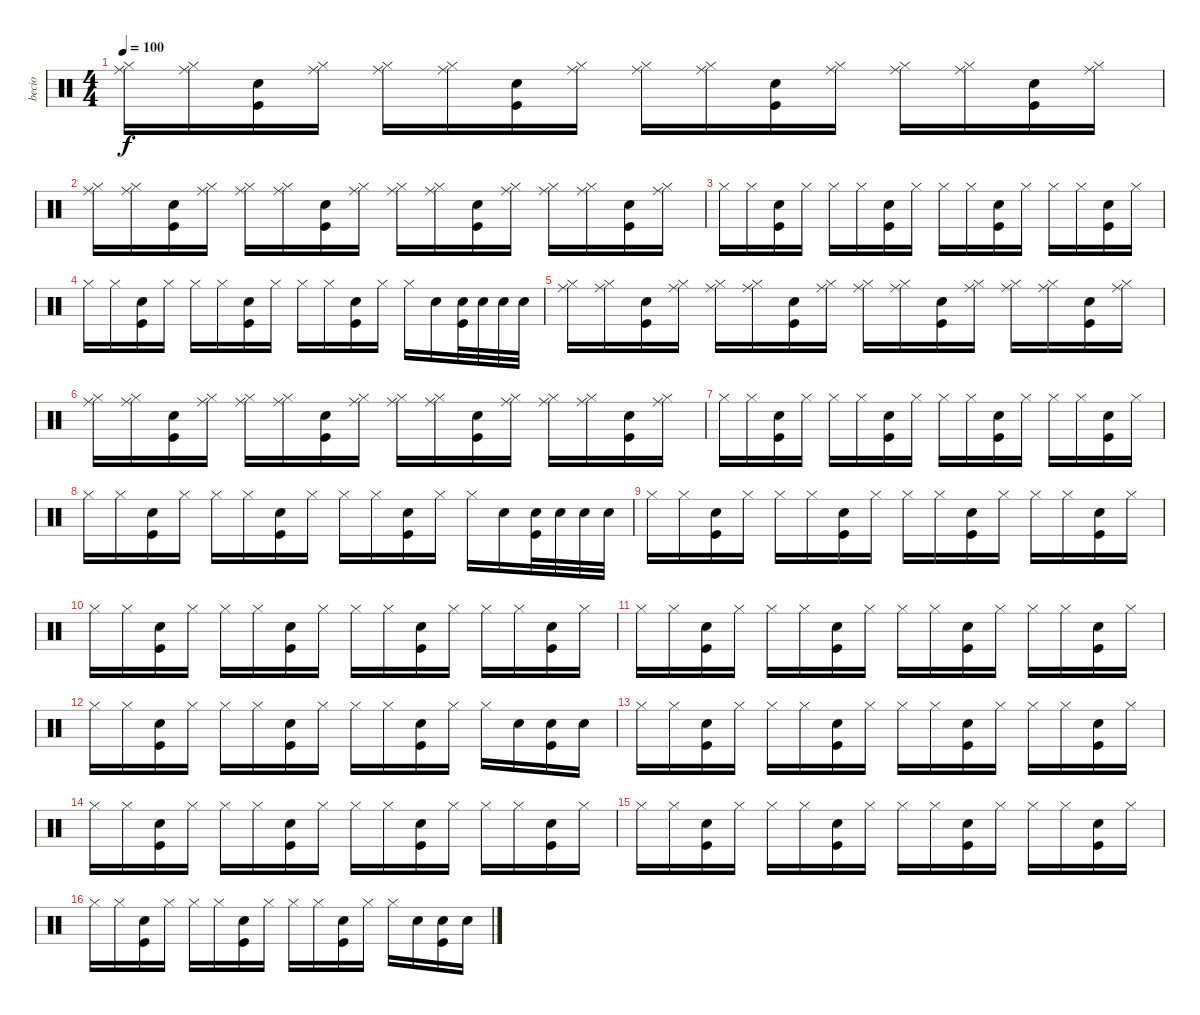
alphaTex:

\track ("becio" "becio") {instrument percussion}
\staff {score}
\articulation defaults
\ts (4 4)
\tempo 100
\clef neutral
\ks c
("Hi-Hat (closed)" "Ride (middle)").16{dy f} ("Hi-Hat (closed)" "Ride (middle)").16 ("Electric Snare (hit)" "Kick (hit)").16 ("Hi-Hat (closed)" "Ride (middle)").16 ("Hi-Hat (closed)" "Ride (middle)").16 ("Hi-Hat (closed)" "Ride (middle)").16 ("Electric Snare (hit)" "Kick (hit)").16 ("Hi-Hat (closed)" "Ride (middle)").16 ("Hi-Hat (closed)" "Ride (middle)").16 ("Hi-Hat (closed)" "Ride (middle)").16 ("Electric Snare (hit)" "Kick (hit)").16 ("Hi-Hat (closed)" "Ride (middle)").16 ("Hi-Hat (closed)" "Ride (middle)").16 ("Hi-Hat (closed)" "Ride (middle)").16 ("Electric Snare (hit)" "Kick (hit)").16 ("Hi-Hat (closed)" "Ride (middle)").16 |
("Hi-Hat (closed)" "Ride (middle)").16 ("Hi-Hat (closed)" "Ride (middle)").16 ("Electric Snare (hit)" "Kick (hit)").16 ("Hi-Hat (closed)" "Ride (middle)").16 ("Hi-Hat (closed)" "Ride (middle)").16 ("Hi-Hat (closed)" "Ride (middle)").16 ("Electric Snare (hit)" "Kick (hit)").16 ("Hi-Hat (closed)" "Ride (middle)").16 ("Hi-Hat (closed)" "Ride (middle)").16 ("Hi-Hat (closed)" "Ride (middle)").16 ("Electric Snare (hit)" "Kick (hit)").16 ("Hi-Hat (closed)" "Ride (middle)").16 ("Hi-Hat (closed)" "Ride (middle)").16 ("Hi-Hat (closed)" "Ride (middle)").16 ("Electric Snare (hit)" "Kick (hit)").16 ("Hi-Hat (closed)" "Ride (middle)").16 |
"Hi-Hat (closed)".16 "Hi-Hat (closed)".16 ("Electric Snare (hit)" "Kick (hit)").16 "Hi-Hat (closed)".16 "Hi-Hat (closed)".16 "Hi-Hat (closed)".16 ("Electric Snare (hit)" "Kick (hit)").16 "Hi-Hat (closed)".16 "Hi-Hat (closed)".16 "Hi-Hat (closed)".16 ("Electric Snare (hit)" "Kick (hit)").16 "Hi-Hat (closed)".16 "Hi-Hat (closed)".16 "Hi-Hat (closed)".16 ("Electric Snare (hit)" "Kick (hit)").16 "Hi-Hat (closed)".16 |
"Hi-Hat (closed)".16 "Hi-Hat (closed)".16 ("Electric Snare (hit)" "Kick (hit)").16 "Hi-Hat (closed)".16 "Hi-Hat (closed)".16 "Hi-Hat (closed)".16 ("Electric Snare (hit)" "Kick (hit)").16 "Hi-Hat (closed)".16 "Hi-Hat (closed)".16 "Hi-Hat (closed)".16 ("Electric Snare (hit)" "Kick (hit)").16 "Hi-Hat (closed)".16 "Hi-Hat (closed)".16 "Electric Snare (hit)".16 ("Electric Snare (hit)" "Kick (hit)").32 "Electric Snare (hit)".32 "Electric Snare (hit)".32 "Electric Snare (hit)".32 |
("Hi-Hat (closed)" "Ride (middle)").16 ("Hi-Hat (closed)" "Ride (middle)").16 ("Electric Snare (hit)" "Kick (hit)").16 ("Hi-Hat (closed)" "Ride (middle)").16 ("Hi-Hat (closed)" "Ride (middle)").16 ("Hi-Hat (closed)" "Ride (middle)").16 ("Electric Snare (hit)" "Kick (hit)").16 ("Hi-Hat (closed)" "Ride (middle)").16 ("Hi-Hat (closed)" "Ride (middle)").16 ("Hi-Hat (closed)" "Ride (middle)").16 ("Electric Snare (hit)" "Kick (hit)").16 ("Hi-Hat (closed)" "Ride (middle)").16 ("Hi-Hat (closed)" "Ride (middle)").16 ("Hi-Hat (closed)" "Ride (middle)").16 ("Electric Snare (hit)" "Kick (hit)").16 ("Hi-Hat (closed)" "Ride (middle)").16 |
("Hi-Hat (closed)" "Ride (middle)").16 ("Hi-Hat (closed)" "Ride (middle)").16 ("Electric Snare (hit)" "Kick (hit)").16 ("Hi-Hat (closed)" "Ride (middle)").16 ("Hi-Hat (closed)" "Ride (middle)").16 ("Hi-Hat (closed)" "Ride (middle)").16 ("Electric Snare (hit)" "Kick (hit)").16 ("Hi-Hat (closed)" "Ride (middle)").16 ("Hi-Hat (closed)" "Ride (middle)").16 ("Hi-Hat (closed)" "Ride (middle)").16 ("Electric Snare (hit)" "Kick (hit)").16 ("Hi-Hat (closed)" "Ride (middle)").16 ("Hi-Hat (closed)" "Ride (middle)").16 ("Hi-Hat (closed)" "Ride (middle)").16 ("Electric Snare (hit)" "Kick (hit)").16 ("Hi-Hat (closed)" "Ride (middle)").16 |
"Hi-Hat (closed)".16 "Hi-Hat (closed)".16 ("Electric Snare (hit)" "Kick (hit)").16 "Hi-Hat (closed)".16 "Hi-Hat (closed)".16 "Hi-Hat (closed)".16 ("Electric Snare (hit)" "Kick (hit)").16 "Hi-Hat (closed)".16 "Hi-Hat (closed)".16 "Hi-Hat (closed)".16 ("Electric Snare (hit)" "Kick (hit)").16 "Hi-Hat (closed)".16 "Hi-Hat (closed)".16 "Hi-Hat (closed)".16 ("Electric Snare (hit)" "Kick (hit)").16 "Hi-Hat (closed)".16 |
"Hi-Hat (closed)".16 "Hi-Hat (closed)".16 ("Electric Snare (hit)" "Kick (hit)").16 "Hi-Hat (closed)".16 "Hi-Hat (closed)".16 "Hi-Hat (closed)".16 ("Electric Snare (hit)" "Kick (hit)").16 "Hi-Hat (closed)".16 "Hi-Hat (closed)".16 "Hi-Hat (closed)".16 ("Electric Snare (hit)" "Kick (hit)").16 "Hi-Hat (closed)".16 "Hi-Hat (closed)".16 "Electric Snare (hit)".16 ("Electric Snare (hit)" "Kick (hit)").32 "Electric Snare (hit)".32 "Electric Snare (hit)".32 "Electric Snare (hit)".32 |
"Hi-Hat (closed)".16 "Hi-Hat (closed)".16 ("Electric Snare (hit)" "Kick (hit)").16 "Hi-Hat (closed)".16 "Hi-Hat (closed)".16 "Hi-Hat (closed)".16 ("Electric Snare (hit)" "Kick (hit)").16 "Hi-Hat (closed)".16 "Hi-Hat (closed)".16 "Hi-Hat (closed)".16 ("Electric Snare (hit)" "Kick (hit)").16 "Hi-Hat (closed)".16 "Hi-Hat (closed)".16 "Hi-Hat (closed)".16 ("Electric Snare (hit)" "Kick (hit)").16 "Hi-Hat (closed)".16 |
"Hi-Hat (closed)".16 "Hi-Hat (closed)".16 ("Electric Snare (hit)" "Kick (hit)").16 "Hi-Hat (closed)".16 "Hi-Hat (closed)".16 "Hi-Hat (closed)".16 ("Electric Snare (hit)" "Kick (hit)").16 "Hi-Hat (closed)".16 "Hi-Hat (closed)".16 "Hi-Hat (closed)".16 ("Electric Snare (hit)" "Kick (hit)").16 "Hi-Hat (closed)".16 "Hi-Hat (closed)".16 "Hi-Hat (closed)".16 ("Electric Snare (hit)" "Kick (hit)").16 "Hi-Hat (closed)".16 |
"Hi-Hat (closed)".16 "Hi-Hat (closed)".16 ("Electric Snare (hit)" "Kick (hit)").16 "Hi-Hat (closed)".16 "Hi-Hat (closed)".16 "Hi-Hat (closed)".16 ("Electric Snare (hit)" "Kick (hit)").16 "Hi-Hat (closed)".16 "Hi-Hat (closed)".16 "Hi-Hat (closed)".16 ("Electric Snare (hit)" "Kick (hit)").16 "Hi-Hat (closed)".16 "Hi-Hat (closed)".16 "Hi-Hat (closed)".16 ("Electric Snare (hit)" "Kick (hit)").16 "Hi-Hat (closed)".16 |
"Hi-Hat (closed)".16 "Hi-Hat (closed)".16 ("Electric Snare (hit)" "Kick (hit)").16 "Hi-Hat (closed)".16 "Hi-Hat (closed)".16 "Hi-Hat (closed)".16 ("Electric Snare (hit)" "Kick (hit)").16 "Hi-Hat (closed)".16 "Hi-Hat (closed)".16 "Hi-Hat (closed)".16 ("Electric Snare (hit)" "Kick (hit)").16 "Hi-Hat (closed)".16 "Hi-Hat (closed)".16 "Electric Snare (hit)".16 ("Electric Snare (hit)" "Kick (hit)").16 "Electric Snare (hit)".16 |
"Hi-Hat (closed)".16 "Hi-Hat (closed)".16 ("Electric Snare (hit)" "Kick (hit)").16 "Hi-Hat (closed)".16 "Hi-Hat (closed)".16 "Hi-Hat (closed)".16 ("Electric Snare (hit)" "Kick (hit)").16 "Hi-Hat (closed)".16 "Hi-Hat (closed)".16 "Hi-Hat (closed)".16 ("Electric Snare (hit)" "Kick (hit)").16 "Hi-Hat (closed)".16 "Hi-Hat (closed)".16 "Hi-Hat (closed)".16 ("Electric Snare (hit)" "Kick (hit)").16 "Hi-Hat (closed)".16 |
"Hi-Hat (closed)".16 "Hi-Hat (closed)".16 ("Electric Snare (hit)" "Kick (hit)").16 "Hi-Hat (closed)".16 "Hi-Hat (closed)".16 "Hi-Hat (closed)".16 ("Electric Snare (hit)" "Kick (hit)").16 "Hi-Hat (closed)".16 "Hi-Hat (closed)".16 "Hi-Hat (closed)".16 ("Electric Snare (hit)" "Kick (hit)").16 "Hi-Hat (closed)".16 "Hi-Hat (closed)".16 "Hi-Hat (closed)".16 ("Electric Snare (hit)" "Kick (hit)").16 "Hi-Hat (closed)".16 |
"Hi-Hat (closed)".16 "Hi-Hat (closed)".16 ("Electric Snare (hit)" "Kick (hit)").16 "Hi-Hat (closed)".16 "Hi-Hat (closed)".16 "Hi-Hat (closed)".16 ("Electric Snare (hit)" "Kick (hit)").16 "Hi-Hat (closed)".16 "Hi-Hat (closed)".16 "Hi-Hat (closed)".16 ("Electric Snare (hit)" "Kick (hit)").16 "Hi-Hat (closed)".16 "Hi-Hat (closed)".16 "Hi-Hat (closed)".16 ("Electric Snare (hit)" "Kick (hit)").16 "Hi-Hat (closed)".16 |
"Hi-Hat (closed)".16 "Hi-Hat (closed)".16 ("Electric Snare (hit)" "Kick (hit)").16 "Hi-Hat (closed)".16 "Hi-Hat (closed)".16 "Hi-Hat (closed)".16 ("Electric Snare (hit)" "Kick (hit)").16 "Hi-Hat (closed)".16 "Hi-Hat (closed)".16 "Hi-Hat (closed)".16 ("Electric Snare (hit)" "Kick (hit)").16 "Hi-Hat (closed)".16 "Hi-Hat (closed)".16 "Electric Snare (hit)".16 ("Electric Snare (hit)" "Kick (hit)").16 "Electric Snare (hit)".16
